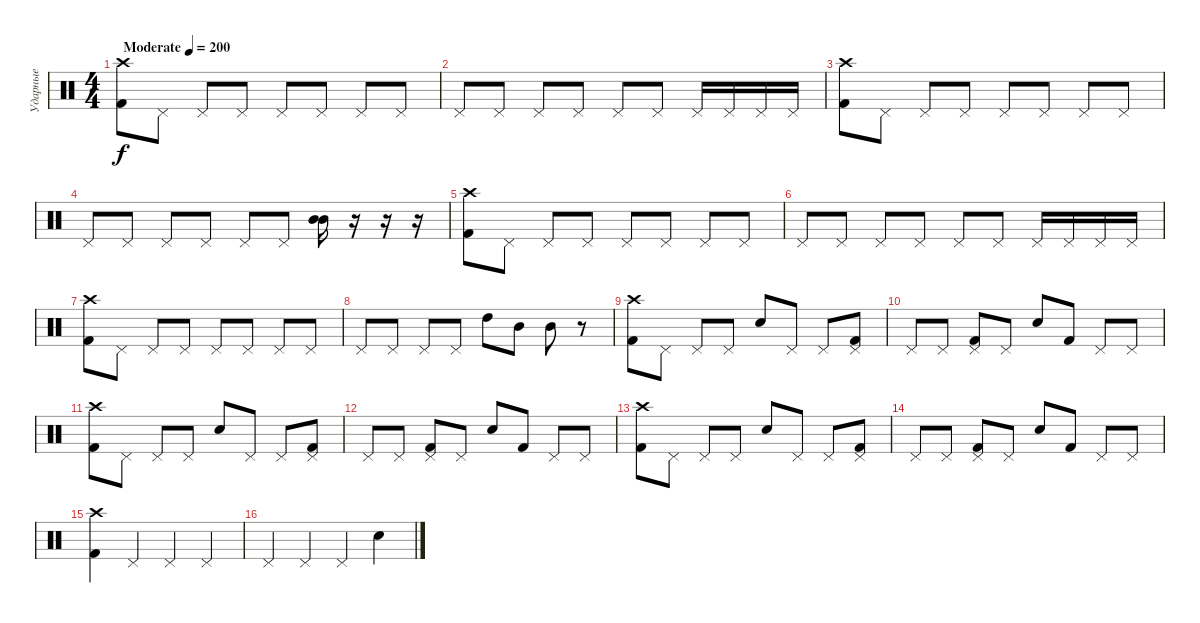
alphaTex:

\track ("Ударные" "Ударные") {instrument percussion}
\staff {score}
\articulation defaults
\ts (4 4)
\tempo (200 "Moderate")
\clef neutral
\ks c
("Crash high (hit)" "Kick (hit) 2").8{dy f} "Pedal Hi-Hat (hit)".8 "Pedal Hi-Hat (hit)".8 "Pedal Hi-Hat (hit)".8 "Pedal Hi-Hat (hit)".8 "Pedal Hi-Hat (hit)".8 "Pedal Hi-Hat (hit)".8 "Pedal Hi-Hat (hit)".8 |
"Pedal Hi-Hat (hit)".8 "Pedal Hi-Hat (hit)".8 "Pedal Hi-Hat (hit)".8 "Pedal Hi-Hat (hit)".8 "Pedal Hi-Hat (hit)".8 "Pedal Hi-Hat (hit)".8 "Pedal Hi-Hat (hit)".16 "Pedal Hi-Hat (hit)".16 "Pedal Hi-Hat (hit)".16 "Pedal Hi-Hat (hit)".16 |
("Crash high (hit)" "Kick (hit) 2").8 "Pedal Hi-Hat (hit)".8 "Pedal Hi-Hat (hit)".8 "Pedal Hi-Hat (hit)".8 "Pedal Hi-Hat (hit)".8 "Pedal Hi-Hat (hit)".8 "Pedal Hi-Hat (hit)".8 "Pedal Hi-Hat (hit)".8 |
"Pedal Hi-Hat (hit)".8 "Pedal Hi-Hat (hit)".8 "Pedal Hi-Hat (hit)".8 "Pedal Hi-Hat (hit)".8 "Pedal Hi-Hat (hit)".8 "Pedal Hi-Hat (hit)".8 ("Mid Tom (hit)" "Mid Tom (hit)").16 r.16 r.16 r.16 |
("Crash high (hit)" "Kick (hit) 2").8 "Pedal Hi-Hat (hit)".8 "Pedal Hi-Hat (hit)".8 "Pedal Hi-Hat (hit)".8 "Pedal Hi-Hat (hit)".8 "Pedal Hi-Hat (hit)".8 "Pedal Hi-Hat (hit)".8 "Pedal Hi-Hat (hit)".8 |
"Pedal Hi-Hat (hit)".8 "Pedal Hi-Hat (hit)".8 "Pedal Hi-Hat (hit)".8 "Pedal Hi-Hat (hit)".8 "Pedal Hi-Hat (hit)".8 "Pedal Hi-Hat (hit)".8 "Pedal Hi-Hat (hit)".16 "Pedal Hi-Hat (hit)".16 "Pedal Hi-Hat (hit)".16 "Pedal Hi-Hat (hit)".16 |
("Crash high (hit)" "Kick (hit) 2").8 "Pedal Hi-Hat (hit)".8 "Pedal Hi-Hat (hit)".8 "Pedal Hi-Hat (hit)".8 "Pedal Hi-Hat (hit)".8 "Pedal Hi-Hat (hit)".8 "Pedal Hi-Hat (hit)".8 "Pedal Hi-Hat (hit)".8 |
"Pedal Hi-Hat (hit)".8 "Pedal Hi-Hat (hit)".8 "Pedal Hi-Hat (hit)".8 "Pedal Hi-Hat (hit)".8 "High Tom (hit)".8 "Mid Tom (hit)".8 "Mid Tom (hit)".8 r.8 |
("Crash high (hit)" "Kick (hit) 2").8 "Pedal Hi-Hat (hit)".8 "Pedal Hi-Hat (hit)".8 "Pedal Hi-Hat (hit)".8 "Electric Snare (hit)".8 "Pedal Hi-Hat (hit)".8 "Pedal Hi-Hat (hit)".8 ("Pedal Hi-Hat (hit)" "Kick (hit) 2").8 |
"Pedal Hi-Hat (hit)".8 "Pedal Hi-Hat (hit)".8 ("Pedal Hi-Hat (hit)" "Kick (hit) 2").8 "Pedal Hi-Hat (hit)".8 "Electric Snare (hit)".8 "Kick (hit) 2".8 "Pedal Hi-Hat (hit)".8 "Pedal Hi-Hat (hit)".8 |
("Crash high (hit)" "Kick (hit) 2").8 "Pedal Hi-Hat (hit)".8 "Pedal Hi-Hat (hit)".8 "Pedal Hi-Hat (hit)".8 "Electric Snare (hit)".8 "Pedal Hi-Hat (hit)".8 "Pedal Hi-Hat (hit)".8 ("Pedal Hi-Hat (hit)" "Kick (hit) 2").8 |
"Pedal Hi-Hat (hit)".8 "Pedal Hi-Hat (hit)".8 ("Pedal Hi-Hat (hit)" "Kick (hit) 2").8 "Pedal Hi-Hat (hit)".8 "Electric Snare (hit)".8 "Kick (hit) 2".8 "Pedal Hi-Hat (hit)".8 "Pedal Hi-Hat (hit)".8 |
("Crash high (hit)" "Kick (hit) 2").8 "Pedal Hi-Hat (hit)".8 "Pedal Hi-Hat (hit)".8 "Pedal Hi-Hat (hit)".8 "Electric Snare (hit)".8 "Pedal Hi-Hat (hit)".8 "Pedal Hi-Hat (hit)".8 ("Pedal Hi-Hat (hit)" "Kick (hit) 2").8 |
"Pedal Hi-Hat (hit)".8 "Pedal Hi-Hat (hit)".8 ("Pedal Hi-Hat (hit)" "Kick (hit) 2").8 "Pedal Hi-Hat (hit)".8 "Electric Snare (hit)".8 "Kick (hit) 2".8 "Pedal Hi-Hat (hit)".8 "Pedal Hi-Hat (hit)".8 |
("Crash high (hit)" "Kick (hit) 2").4 "Pedal Hi-Hat (hit)".4 "Pedal Hi-Hat (hit)".4 "Pedal Hi-Hat (hit)".4 |
"Pedal Hi-Hat (hit)".4 "Pedal Hi-Hat (hit)".4 "Pedal Hi-Hat (hit)".4 "Electric Snare (hit)".4
